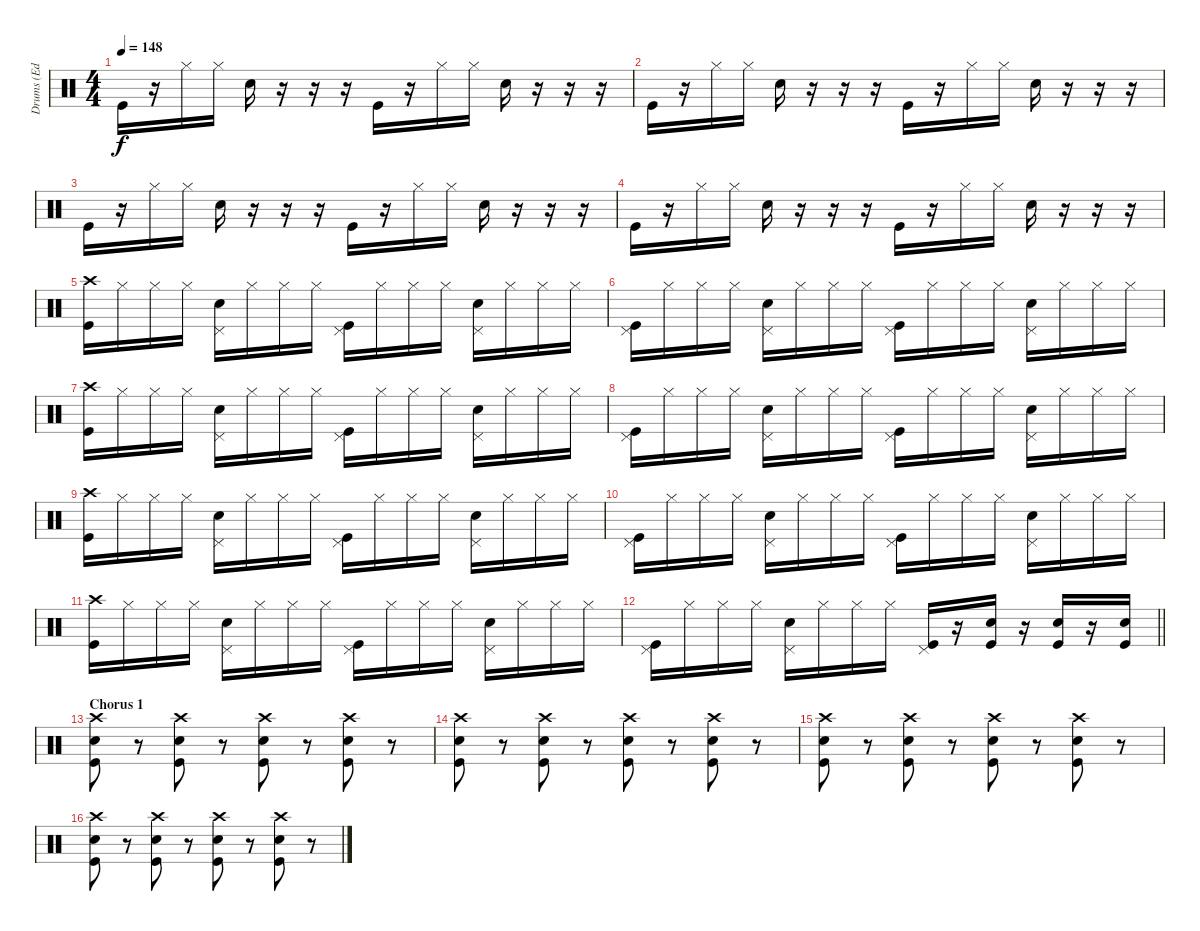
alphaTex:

\track ("Drums (Ed Lay)" "Drums (Ed ") {instrument percussion}
\staff {score}
\articulation defaults
\ts (4 4)
\tempo 148
\clef neutral
\ks c "Kick (hit)".16{dy f}
r.16 "Hi-Hat (closed)".16 "Hi-Hat (closed)".16 "Electric Snare (hit)".16 r.16 r.16 r.16 "Kick (hit)".16 r.16 "Hi-Hat (closed)".16 "Hi-Hat (closed)".16 "Electric Snare (hit)".16 r.16 r.16 r.16 |
"Kick (hit)".16 r.16 "Hi-Hat (closed)".16 "Hi-Hat (closed)".16 "Electric Snare (hit)".16 r.16 r.16 r.16 "Kick (hit)".16 r.16 "Hi-Hat (closed)".16 "Hi-Hat (closed)".16 "Electric Snare (hit)".16 r.16 r.16 r.16 |
"Kick (hit)".16 r.16 "Hi-Hat (closed)".16 "Hi-Hat (closed)".16 "Electric Snare (hit)".16 r.16 r.16 r.16 "Kick (hit)".16 r.16 "Hi-Hat (closed)".16 "Hi-Hat (closed)".16 "Electric Snare (hit)".16 r.16 r.16 r.16 |
"Kick (hit)".16 r.16 "Hi-Hat (closed)".16 "Hi-Hat (closed)".16 "Electric Snare (hit)".16 r.16 r.16 r.16 "Kick (hit)".16 r.16 "Hi-Hat (closed)".16 "Hi-Hat (closed)".16 "Electric Snare (hit)".16 r.16 r.16 r.16 |
("Crash high (hit)" "Kick (hit)").16 "Hi-Hat (closed)".16 "Hi-Hat (closed)".16 "Hi-Hat (closed)".16 ("Pedal Hi-Hat (hit)" "Electric Snare (hit)").16 "Hi-Hat (closed)".16 "Hi-Hat (closed)".16 "Hi-Hat (closed)".16 ("Pedal Hi-Hat (hit)" "Kick (hit)").16 "Hi-Hat (closed)".16 "Hi-Hat (closed)".16 "Hi-Hat (closed)".16 ("Pedal Hi-Hat (hit)" "Electric Snare (hit)").16 "Hi-Hat (closed)".16 "Hi-Hat (closed)".16 "Hi-Hat (closed)".16 |
("Pedal Hi-Hat (hit)" "Kick (hit)").16 "Hi-Hat (closed)".16 "Hi-Hat (closed)".16 "Hi-Hat (closed)".16 ("Pedal Hi-Hat (hit)" "Electric Snare (hit)").16 "Hi-Hat (closed)".16 "Hi-Hat (closed)".16 "Hi-Hat (closed)".16 ("Pedal Hi-Hat (hit)" "Kick (hit)").16 "Hi-Hat (closed)".16 "Hi-Hat (closed)".16 "Hi-Hat (closed)".16 ("Pedal Hi-Hat (hit)" "Electric Snare (hit)").16 "Hi-Hat (closed)".16 "Hi-Hat (closed)".16 "Hi-Hat (closed)".16 |
("Crash high (hit)" "Kick (hit)").16 "Hi-Hat (closed)".16 "Hi-Hat (closed)".16 "Hi-Hat (closed)".16 ("Pedal Hi-Hat (hit)" "Electric Snare (hit)").16 "Hi-Hat (closed)".16 "Hi-Hat (closed)".16 "Hi-Hat (closed)".16 ("Pedal Hi-Hat (hit)" "Kick (hit)").16 "Hi-Hat (closed)".16 "Hi-Hat (closed)".16 "Hi-Hat (closed)".16 ("Pedal Hi-Hat (hit)" "Electric Snare (hit)").16 "Hi-Hat (closed)".16 "Hi-Hat (closed)".16 "Hi-Hat (closed)".16 |
("Pedal Hi-Hat (hit)" "Kick (hit)").16 "Hi-Hat (closed)".16 "Hi-Hat (closed)".16 "Hi-Hat (closed)".16 ("Pedal Hi-Hat (hit)" "Electric Snare (hit)").16 "Hi-Hat (closed)".16 "Hi-Hat (closed)".16 "Hi-Hat (closed)".16 ("Pedal Hi-Hat (hit)" "Kick (hit)").16 "Hi-Hat (closed)".16 "Hi-Hat (closed)".16 "Hi-Hat (closed)".16 ("Pedal Hi-Hat (hit)" "Electric Snare (hit)").16 "Hi-Hat (closed)".16 "Hi-Hat (closed)".16 "Hi-Hat (closed)".16 |
("Crash high (hit)" "Kick (hit)").16 "Hi-Hat (closed)".16 "Hi-Hat (closed)".16 "Hi-Hat (closed)".16 ("Pedal Hi-Hat (hit)" "Electric Snare (hit)").16 "Hi-Hat (closed)".16 "Hi-Hat (closed)".16 "Hi-Hat (closed)".16 ("Pedal Hi-Hat (hit)" "Kick (hit)").16 "Hi-Hat (closed)".16 "Hi-Hat (closed)".16 "Hi-Hat (closed)".16 ("Pedal Hi-Hat (hit)" "Electric Snare (hit)").16 "Hi-Hat (closed)".16 "Hi-Hat (closed)".16 "Hi-Hat (closed)".16 |
("Pedal Hi-Hat (hit)" "Kick (hit)").16 "Hi-Hat (closed)".16 "Hi-Hat (closed)".16 "Hi-Hat (closed)".16 ("Pedal Hi-Hat (hit)" "Electric Snare (hit)").16 "Hi-Hat (closed)".16 "Hi-Hat (closed)".16 "Hi-Hat (closed)".16 ("Pedal Hi-Hat (hit)" "Kick (hit)").16 "Hi-Hat (closed)".16 "Hi-Hat (closed)".16 "Hi-Hat (closed)".16 ("Pedal Hi-Hat (hit)" "Electric Snare (hit)").16 "Hi-Hat (closed)".16 "Hi-Hat (closed)".16 "Hi-Hat (closed)".16 |
("Crash high (hit)" "Kick (hit)").16 "Hi-Hat (closed)".16 "Hi-Hat (closed)".16 "Hi-Hat (closed)".16 ("Pedal Hi-Hat (hit)" "Electric Snare (hit)").16 "Hi-Hat (closed)".16 "Hi-Hat (closed)".16 "Hi-Hat (closed)".16 ("Pedal Hi-Hat (hit)" "Kick (hit)").16 "Hi-Hat (closed)".16 "Hi-Hat (closed)".16 "Hi-Hat (closed)".16 ("Pedal Hi-Hat (hit)" "Electric Snare (hit)").16 "Hi-Hat (closed)".16 "Hi-Hat (closed)".16 "Hi-Hat (closed)".16 |
\barLineRight lightlight
("Pedal Hi-Hat (hit)" "Kick (hit)").16 "Hi-Hat (closed)".16 "Hi-Hat (closed)".16 "Hi-Hat (closed)".16 ("Pedal Hi-Hat (hit)" "Electric Snare (hit)").16 "Hi-Hat (closed)".16 "Hi-Hat (closed)".16 "Hi-Hat (closed)".16 ("Pedal Hi-Hat (hit)" "Kick (hit)").16 r.16 ("Electric Snare (hit)" "Kick (hit)").16 r.16 ("Electric Snare (hit)" "Kick (hit)").16 r.16 ("Electric Snare (hit)" "Kick (hit)").16 |
\section ("" "Chorus 1")
("Crash high (hit)" "Electric Snare (hit)" "Kick (hit)").8 r.8 ("Crash high (hit)" "Electric Snare (hit)" "Kick (hit)").8 r.8 ("Crash high (hit)" "Electric Snare (hit)" "Kick (hit)").8 r.8 ("Crash high (hit)" "Electric Snare (hit)" "Kick (hit)").8 r.8 |
("Crash high (hit)" "Electric Snare (hit)" "Kick (hit)").8 r.8 ("Crash high (hit)" "Electric Snare (hit)" "Kick (hit)").8 r.8 ("Crash high (hit)" "Electric Snare (hit)" "Kick (hit)").8 r.8 ("Crash high (hit)" "Electric Snare (hit)" "Kick (hit)").8 r.8 |
("Crash high (hit)" "Electric Snare (hit)" "Kick (hit)").8 r.8 ("Crash high (hit)" "Electric Snare (hit)" "Kick (hit)").8 r.8 ("Crash high (hit)" "Electric Snare (hit)" "Kick (hit)").8 r.8 ("Crash high (hit)" "Electric Snare (hit)" "Kick (hit)").8 r.8 |
("Crash high (hit)" "Electric Snare (hit)" "Kick (hit)").8 r.8 ("Crash high (hit)" "Electric Snare (hit)" "Kick (hit)").8 r.8 ("Crash high (hit)" "Electric Snare (hit)" "Kick (hit)").8 r.8 ("Crash high (hit)" "Electric Snare (hit)" "Kick (hit)").8 r.8
